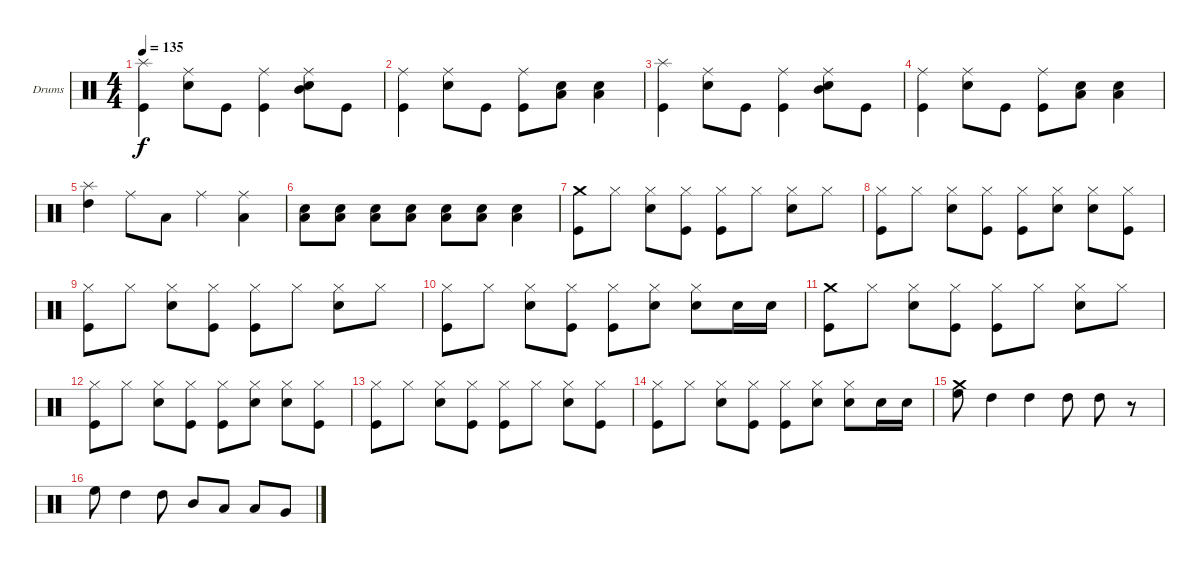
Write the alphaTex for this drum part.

\defaultSystemsLayout 4
\bracketExtendMode groupsimilarinstruments
\firstSystemTrackNameOrientation horizontal
\otherSystemsTrackNameOrientation horizontal
\track ("Барабаны" "Drums") {instrument percussion}
\staff {score}
\articulation defaults
\ts (4 4)
\tempo 135
\clef neutral
\scale
0.333333
\ks c
("Splash (hit)" "Kick (hit)").4{dy f} ("Ride (middle)" "Snare (hit) 2").8 "Kick (hit)".8 ("Ride (middle)" "Kick (hit)").4 ("Ride (middle)" "Mid Tom (hit)" "Snare (hit) 2").8 "Kick (hit)".8 |
\scale
0.333333 ("Ride (middle)" "Kick (hit)").4 ("Ride (middle)" "Snare (hit) 2").8 "Kick (hit)".8 ("Ride (middle)" "Kick (hit)").8 ("Low Tom (hit)" "Snare (hit) 2").8 ("Low Tom (hit)" "Snare (hit) 2").4 |
\scale
0.333333 ("Splash (hit)" "Kick (hit)").4 ("Ride (middle)" "Snare (hit) 2").8 "Kick (hit)".8 ("Ride (middle)" "Kick (hit)").4 ("Ride (middle)" "Mid Tom (hit)" "Snare (hit) 2").8 "Kick (hit)".8 |
\scale
0.333333 ("Ride (middle)" "Kick (hit)").4 ("Ride (middle)" "Snare (hit) 2").8 "Kick (hit)".8 ("Ride (middle)" "Kick (hit)").8 ("Low Tom (hit)" "Snare (hit) 2").8 ("Low Tom (hit)" "Snare (hit) 2").4 |
\scale
0.333333 ("Splash (hit)" "High Tom (hit)").4 "Ride (middle)".8 "Low Tom (hit)".8 "Ride (middle)".4 ("Ride (middle)" "Low Tom (hit)").4 |
\scale
0.333333 ("Low Tom (hit)" "Snare (hit) 2").8 ("Low Tom (hit)" "Snare (hit) 2").8 ("Low Tom (hit)" "Snare (hit) 2").8 ("Low Tom (hit)" "Snare (hit) 2").8 ("Low Tom (hit)" "Snare (hit) 2").8 ("Low Tom (hit)" "Snare (hit) 2").8 ("Low Tom (hit)" "Snare (hit) 2").4 |
\scale
0.333333 ("Crash medium (hit)" "Kick (hit)").8 "Hi-Hat (closed)".8 ("Hi-Hat (closed)" "Snare (hit) 2").8 ("Hi-Hat (closed)" "Kick (hit)").8 ("Hi-Hat (closed)" "Kick (hit)").8 "Hi-Hat (closed)".8 ("Hi-Hat (closed)" "Snare (hit) 2").8 "Hi-Hat (closed)".8 |
\scale
0.333333 ("Hi-Hat (closed)" "Kick (hit)").8 "Hi-Hat (closed)".8 ("Hi-Hat (closed)" "Snare (hit) 2").8 ("Hi-Hat (closed)" "Kick (hit)").8 ("Hi-Hat (closed)" "Kick (hit)").8 ("Hi-Hat (closed)" "Snare (hit) 2").8 ("Hi-Hat (closed)" "Snare (hit) 2").8 ("Hi-Hat (closed)" "Kick (hit)").8 |
\scale
0.333333 ("Hi-Hat (closed)" "Kick (hit)").8 "Hi-Hat (closed)".8 ("Hi-Hat (closed)" "Snare (hit) 2").8 ("Hi-Hat (closed)" "Kick (hit)").8 ("Hi-Hat (closed)" "Kick (hit)").8 "Hi-Hat (closed)".8 ("Hi-Hat (closed)" "Snare (hit) 2").8 "Hi-Hat (closed)".8 |
\scale
0.333333 ("Hi-Hat (closed)" "Kick (hit)").8 "Hi-Hat (closed)".8 ("Hi-Hat (closed)" "Snare (hit) 2").8 ("Hi-Hat (closed)" "Kick (hit)").8 ("Hi-Hat (closed)" "Kick (hit)").8 ("Hi-Hat (closed)" "Snare (hit) 2").8 ("Hi-Hat (closed)" "Snare (hit) 2").8 "Snare (hit) 2".16 "Snare (hit) 2".16 |
\scale
0.333333 ("Crash medium (hit)" "Kick (hit)").8 "Hi-Hat (closed)".8 ("Hi-Hat (closed)" "Snare (hit) 2").8 ("Hi-Hat (closed)" "Kick (hit)").8 ("Hi-Hat (closed)" "Kick (hit)").8 "Hi-Hat (closed)".8 ("Hi-Hat (closed)" "Snare (hit) 2").8 "Hi-Hat (closed)".8 |
\scale
0.333333 ("Hi-Hat (closed)" "Kick (hit)").8 "Hi-Hat (closed)".8 ("Hi-Hat (closed)" "Snare (hit) 2").8 ("Hi-Hat (closed)" "Kick (hit)").8 ("Hi-Hat (closed)" "Kick (hit)").8 ("Hi-Hat (closed)" "Snare (hit) 2").8 ("Hi-Hat (closed)" "Snare (hit) 2").8 ("Hi-Hat (closed)" "Kick (hit)").8 |
\scale
0.333333 ("Hi-Hat (closed)" "Kick (hit)").8 "Hi-Hat (closed)".8 ("Hi-Hat (closed)" "Snare (hit) 2").8 ("Hi-Hat (closed)" "Kick (hit)").8 ("Hi-Hat (closed)" "Kick (hit)").8 "Hi-Hat (closed)".8 ("Hi-Hat (closed)" "Snare (hit) 2").8 ("Hi-Hat (closed)" "Kick (hit)").8 |
\scale
0.333333 ("Hi-Hat (closed)" "Kick (hit)").8 "Hi-Hat (closed)".8 ("Hi-Hat (closed)" "Snare (hit) 2").8 ("Hi-Hat (closed)" "Kick (hit)").8 ("Hi-Hat (closed)" "Kick (hit)").8 ("Hi-Hat (closed)" "Snare (hit) 2").8 ("Hi-Hat (closed)" "Snare (hit) 2").8 "Snare (hit) 2".16 "Snare (hit) 2".16 |
\scale
0.333333 ("Crash medium (hit)" "High Floor Tom (hit)").8 "High Tom (hit)".4 "High Tom (hit)".4 "High Tom (hit)".8 "High Tom (hit)".8 r.8 |
\scale
0.333333 "High Floor Tom (hit)".8 "High Tom (hit)".4 "High Tom (hit)".8 "Mid Tom (hit)".8 "Low Tom (hit)".8 "Low Tom (hit)".8 "Very Low Tom (hit)".8
